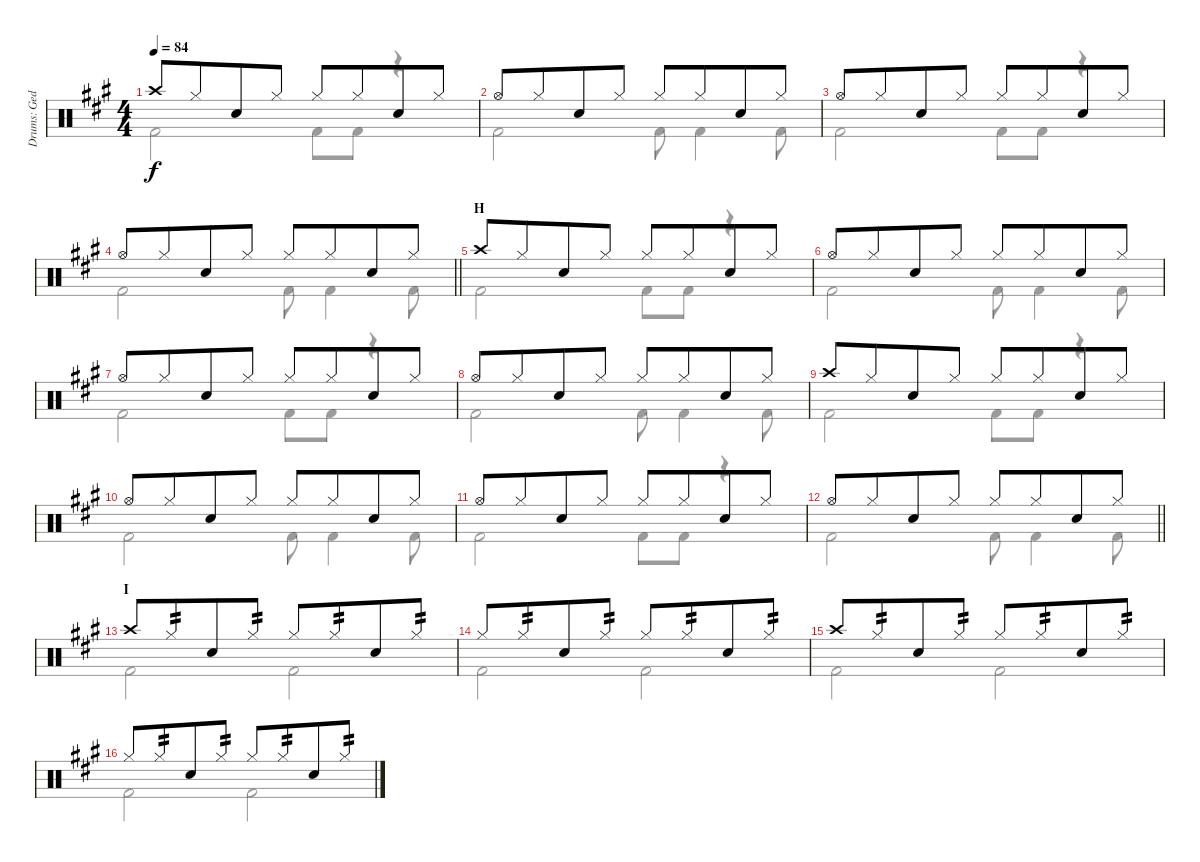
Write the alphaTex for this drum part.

\track ("Drums: Ged Lynch" "Drums: Ged") {instrument percussion}
\staff {score}
\articulation defaults
\voice
\ts (4 4)
\tempo 84
\clef neutral
\ks a "Crash high (hit)".8{dy f} "Hi-Hat (closed)".8{beam merge} "Electric Snare (hit)".8 "Hi-Hat (closed)".8 "Hi-Hat (closed)".8 "Hi-Hat (closed)".8{beam merge} "Electric Snare (hit)".8 "Hi-Hat (closed)".8
|
"Hi-Hat (open)".8 "Hi-Hat (closed)".8{beam merge} "Electric Snare (hit)".8 "Hi-Hat (closed)".8 "Hi-Hat (closed)".8 "Hi-Hat (closed)".8{beam merge} "Electric Snare (hit)".8 "Hi-Hat (closed)".8 |
"Hi-Hat (open)".8 "Hi-Hat (closed)".8{beam merge} "Electric Snare (hit)".8 "Hi-Hat (closed)".8 "Hi-Hat (closed)".8 "Hi-Hat (closed)".8{beam merge} "Electric Snare (hit)".8 "Hi-Hat (closed)".8 |
\barLineRight lightlight "Hi-Hat (open)".8 "Hi-Hat (closed)".8{beam merge} "Electric Snare (hit)".8 "Hi-Hat (closed)".8 "Hi-Hat (closed)".8 "Hi-Hat (closed)".8{beam merge} "Electric Snare (hit)".8 "Hi-Hat (closed)".8
|
\section ("" "H")
"Crash high (hit)".8 "Hi-Hat (closed)".8{beam merge} "Electric Snare (hit)".8 "Hi-Hat (closed)".8 "Hi-Hat (closed)".8 "Hi-Hat (closed)".8{beam merge} "Electric Snare (hit)".8 "Hi-Hat (closed)".8 |
"Hi-Hat (open)".8 "Hi-Hat (closed)".8{beam merge} "Electric Snare (hit)".8 "Hi-Hat (closed)".8 "Hi-Hat (closed)".8 "Hi-Hat (closed)".8{beam merge} "Electric Snare (hit)".8 "Hi-Hat (closed)".8 |
"Hi-Hat (open)".8 "Hi-Hat (closed)".8{beam merge} "Electric Snare (hit)".8 "Hi-Hat (closed)".8 "Hi-Hat (closed)".8 "Hi-Hat (closed)".8{beam merge} "Electric Snare (hit)".8 "Hi-Hat (closed)".8 |
"Hi-Hat (open)".8 "Hi-Hat (closed)".8{beam merge} "Electric Snare (hit)".8 "Hi-Hat (closed)".8 "Hi-Hat (closed)".8 "Hi-Hat (closed)".8{beam merge} "Electric Snare (hit)".8 "Hi-Hat (closed)".8 |
"Crash high (hit)".8 "Hi-Hat (closed)".8{beam merge} "Electric Snare (hit)".8 "Hi-Hat (closed)".8 "Hi-Hat (closed)".8 "Hi-Hat (closed)".8{beam merge} "Electric Snare (hit)".8 "Hi-Hat (closed)".8 |
"Hi-Hat (open)".8 "Hi-Hat (closed)".8{beam merge} "Electric Snare (hit)".8 "Hi-Hat (closed)".8 "Hi-Hat (closed)".8 "Hi-Hat (closed)".8{beam merge} "Electric Snare (hit)".8 "Hi-Hat (closed)".8 |
"Hi-Hat (open)".8 "Hi-Hat (closed)".8{beam merge} "Electric Snare (hit)".8 "Hi-Hat (closed)".8 "Hi-Hat (closed)".8 "Hi-Hat (closed)".8{beam merge} "Electric Snare (hit)".8 "Hi-Hat (closed)".8 |
\barLineRight lightlight "Hi-Hat (open)".8 "Hi-Hat (closed)".8{beam merge} "Electric Snare (hit)".8 "Hi-Hat (closed)".8 "Hi-Hat (closed)".8 "Hi-Hat (closed)".8{beam merge} "Electric Snare (hit)".8 "Hi-Hat (closed)".8
|
\section ("" "I")
"Crash high (hit)".8 "Hi-Hat (closed)".8{tp 2 beam merge} "Electric Snare (hit)".8 "Hi-Hat (closed)".8{tp 2} "Hi-Hat (closed)".8 "Hi-Hat (closed)".8{tp 2 beam merge} "Electric Snare (hit)".8 "Hi-Hat (closed)".8{tp 2} |
"Hi-Hat (closed)".8 "Hi-Hat (closed)".8{tp 2 beam merge} "Electric Snare (hit)".8 "Hi-Hat (closed)".8{tp 2} "Hi-Hat (closed)".8 "Hi-Hat (closed)".8{tp 2 beam merge} "Electric Snare (hit)".8 "Hi-Hat (closed)".8{tp 2} |
"Crash high (hit)".8 "Hi-Hat (closed)".8{tp 2 beam merge} "Electric Snare (hit)".8 "Hi-Hat (closed)".8{tp 2} "Hi-Hat (closed)".8 "Hi-Hat (closed)".8{tp 2 beam merge} "Electric Snare (hit)".8 "Hi-Hat (closed)".8{tp 2} |
"Hi-Hat (closed)".8 "Hi-Hat (closed)".8{tp 2 beam merge} "Electric Snare (hit)".8 "Hi-Hat (closed)".8{tp 2} "Hi-Hat (closed)".8 "Hi-Hat (closed)".8{tp 2 beam merge} "Electric Snare (hit)".8 "Hi-Hat (closed)".8{tp 2}
\voice
\clef neutral
\ottava regular
\simile none
\ks a "Kick (hit) 2".2{dy f} "Kick (hit) 2".8 "Kick (hit) 2".8
r.4 |
"Kick (hit) 2".2 "Kick (hit) 2".8 "Kick (hit) 2".4 "Kick (hit) 2".8 |
"Kick (hit) 2".2 "Kick (hit) 2".8 "Kick (hit) 2".8 r.4 |
\barLineRight lightlight "Kick (hit) 2".2 "Kick (hit) 2".8 "Kick (hit) 2".4 "Kick (hit) 2".8
|
"Kick (hit) 2".2 "Kick (hit) 2".8 "Kick (hit) 2".8 r.4 |
"Kick (hit) 2".2 "Kick (hit) 2".8 "Kick (hit) 2".4 "Kick (hit) 2".8 |
"Kick (hit) 2".2 "Kick (hit) 2".8 "Kick (hit) 2".8 r.4 |
"Kick (hit) 2".2 "Kick (hit) 2".8 "Kick (hit) 2".4 "Kick (hit) 2".8 |
"Kick (hit) 2".2 "Kick (hit) 2".8 "Kick (hit) 2".8 r.4 |
"Kick (hit) 2".2 "Kick (hit) 2".8 "Kick (hit) 2".4 "Kick (hit) 2".8 |
"Kick (hit) 2".2 "Kick (hit) 2".8 "Kick (hit) 2".8 r.4 |
\barLineRight lightlight "Kick (hit) 2".2 "Kick (hit) 2".8 "Kick (hit) 2".4 "Kick (hit) 2".8
|
"Kick (hit) 2".2 "Kick (hit) 2".2 |
"Kick (hit) 2".2 "Kick (hit) 2".2 |
"Kick (hit) 2".2 "Kick (hit) 2".2 |
"Kick (hit) 2".2 "Kick (hit) 2".2
